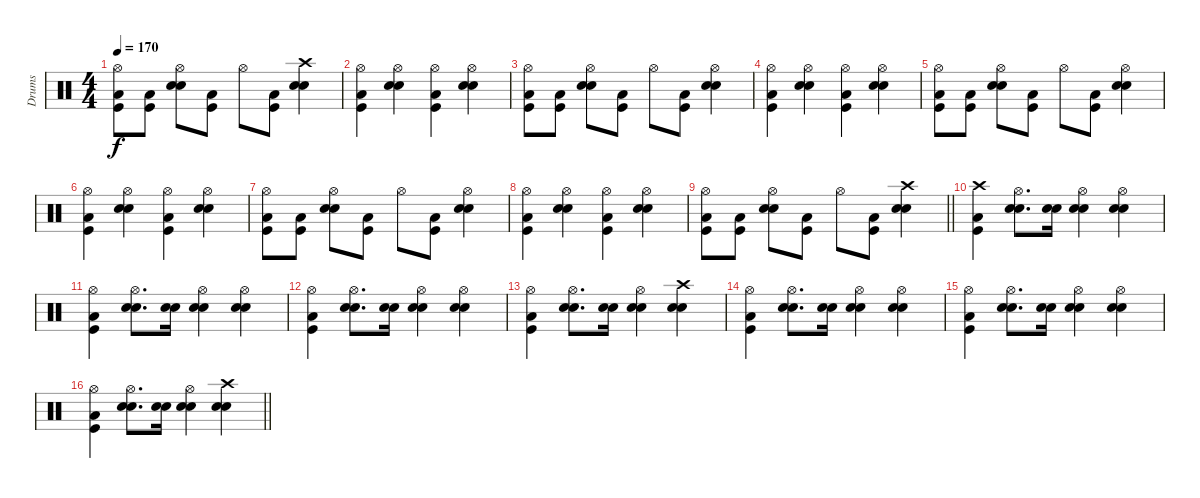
\track ("Drums" "Drums") {instrument percussion}
\staff {score}
\articulation defaults
\ts (4 4)
\tempo 170
\clef neutral
\ks c
("Hi-Hat (open)" "Kick (hit)" "Low Tom (hit)").8{dy f} ("Kick (hit)" "Low Tom (hit)").8 ("Hi-Hat (open)" "Snare (hit) 2" "Electric Snare (hit)").8 ("Kick (hit)" "Low Tom (hit)").8 "Hi-Hat (open)".8 ("Kick (hit)" "Low Tom (hit)").8 ("Crash high (hit)" "Snare (hit) 2" "Electric Snare (hit)").4 |
("Hi-Hat (open)" "Kick (hit)" "Low Tom (hit)").4 ("Hi-Hat (open)" "Snare (hit) 2" "Electric Snare (hit)").4 ("Hi-Hat (open)" "Kick (hit)" "Low Tom (hit)").4 ("Hi-Hat (open)" "Snare (hit) 2" "Electric Snare (hit)").4 |
("Hi-Hat (open)" "Kick (hit)" "Low Tom (hit)").8 ("Kick (hit)" "Low Tom (hit)").8 ("Hi-Hat (open)" "Snare (hit) 2" "Electric Snare (hit)").8 ("Kick (hit)" "Low Tom (hit)").8 "Hi-Hat (open)".8 ("Kick (hit)" "Low Tom (hit)").8 ("Hi-Hat (open)" "Snare (hit) 2" "Electric Snare (hit)").4 |
("Hi-Hat (open)" "Kick (hit)" "Low Tom (hit)").4 ("Hi-Hat (open)" "Snare (hit) 2" "Electric Snare (hit)").4 ("Hi-Hat (open)" "Kick (hit)" "Low Tom (hit)").4 ("Hi-Hat (open)" "Snare (hit) 2" "Electric Snare (hit)").4 |
("Hi-Hat (open)" "Kick (hit)" "Low Tom (hit)").8 ("Kick (hit)" "Low Tom (hit)").8 ("Hi-Hat (open)" "Snare (hit) 2" "Electric Snare (hit)").8 ("Kick (hit)" "Low Tom (hit)").8 "Hi-Hat (open)".8 ("Kick (hit)" "Low Tom (hit)").8 ("Hi-Hat (open)" "Snare (hit) 2" "Electric Snare (hit)").4 |
("Hi-Hat (open)" "Kick (hit)" "Low Tom (hit)").4 ("Hi-Hat (open)" "Snare (hit) 2" "Electric Snare (hit)").4 ("Hi-Hat (open)" "Kick (hit)" "Low Tom (hit)").4 ("Hi-Hat (open)" "Snare (hit) 2" "Electric Snare (hit)").4 |
("Hi-Hat (open)" "Kick (hit)" "Low Tom (hit)").8 ("Kick (hit)" "Low Tom (hit)").8 ("Hi-Hat (open)" "Snare (hit) 2" "Electric Snare (hit)").8 ("Kick (hit)" "Low Tom (hit)").8 "Hi-Hat (open)".8 ("Kick (hit)" "Low Tom (hit)").8 ("Hi-Hat (open)" "Snare (hit) 2" "Electric Snare (hit)").4 |
("Hi-Hat (open)" "Kick (hit)" "Low Tom (hit)").4 ("Hi-Hat (open)" "Snare (hit) 2" "Electric Snare (hit)").4 ("Hi-Hat (open)" "Kick (hit)" "Low Tom (hit)").4 ("Hi-Hat (open)" "Snare (hit) 2" "Electric Snare (hit)").4 |
\barLineRight lightlight
("Hi-Hat (open)" "Kick (hit)" "Low Tom (hit)").8 ("Kick (hit)" "Low Tom (hit)").8 ("Hi-Hat (open)" "Snare (hit) 2" "Electric Snare (hit)").8 ("Kick (hit)" "Low Tom (hit)").8 "Hi-Hat (open)".8 ("Kick (hit)" "Low Tom (hit)").8 ("Crash high (hit)" "Snare (hit) 2" "Electric Snare (hit)").4 |
("Crash high (hit)" "Low Tom (hit)" "Kick (hit)").4 ("Hi-Hat (open)" "Snare (hit) 2" "Electric Snare (hit)").8{d} ("Snare (hit) 2" "Electric Snare (hit)").16 ("Hi-Hat (open)" "Snare (hit) 2" "Electric Snare (hit)").4 ("Hi-Hat (open)" "Snare (hit) 2" "Electric Snare (hit)").4 |
("Hi-Hat (open)" "Low Tom (hit)" "Kick (hit)").4 ("Hi-Hat (open)" "Snare (hit) 2" "Electric Snare (hit)").8{d} ("Snare (hit) 2" "Electric Snare (hit)").16 ("Hi-Hat (open)" "Snare (hit) 2" "Electric Snare (hit)").4 ("Hi-Hat (open)" "Snare (hit) 2" "Electric Snare (hit)").4 |
("Hi-Hat (open)" "Low Tom (hit)" "Kick (hit)").4 ("Hi-Hat (open)" "Snare (hit) 2" "Electric Snare (hit)").8{d} ("Snare (hit) 2" "Electric Snare (hit)").16 ("Hi-Hat (open)" "Snare (hit) 2" "Electric Snare (hit)").4 ("Hi-Hat (open)" "Snare (hit) 2" "Electric Snare (hit)").4 |
("Hi-Hat (open)" "Low Tom (hit)" "Kick (hit)").4 ("Hi-Hat (open)" "Snare (hit) 2" "Electric Snare (hit)").8{d} ("Snare (hit) 2" "Electric Snare (hit)").16 ("Hi-Hat (open)" "Snare (hit) 2" "Electric Snare (hit)").4 ("Crash high (hit)" "Snare (hit) 2" "Electric Snare (hit)").4 |
("Hi-Hat (open)" "Low Tom (hit)" "Kick (hit)").4 ("Hi-Hat (open)" "Snare (hit) 2" "Electric Snare (hit)").8{d} ("Snare (hit) 2" "Electric Snare (hit)").16 ("Hi-Hat (open)" "Snare (hit) 2" "Electric Snare (hit)").4 ("Hi-Hat (open)" "Snare (hit) 2" "Electric Snare (hit)").4 |
("Hi-Hat (open)" "Low Tom (hit)" "Kick (hit)").4 ("Hi-Hat (open)" "Snare (hit) 2" "Electric Snare (hit)").8{d} ("Snare (hit) 2" "Electric Snare (hit)").16 ("Hi-Hat (open)" "Snare (hit) 2" "Electric Snare (hit)").4 ("Hi-Hat (open)" "Snare (hit) 2" "Electric Snare (hit)").4 |
\barLineRight lightlight
("Hi-Hat (open)" "Low Tom (hit)" "Kick (hit)").4 ("Hi-Hat (open)" "Snare (hit) 2" "Electric Snare (hit)").8{d} ("Snare (hit) 2" "Electric Snare (hit)").16 ("Hi-Hat (open)" "Snare (hit) 2" "Electric Snare (hit)").4 ("Crash high (hit)" "Snare (hit) 2" "Electric Snare (hit)").4
